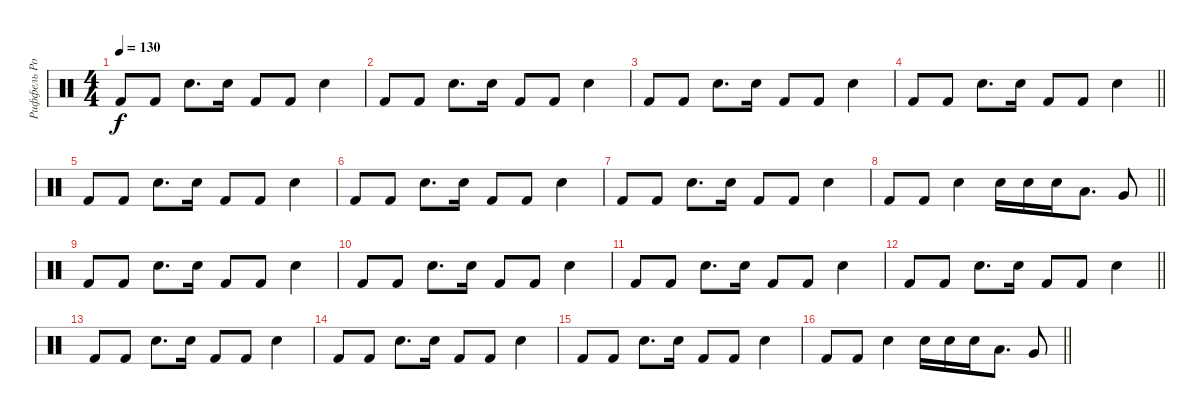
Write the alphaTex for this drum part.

\track ("Риффель Роман(Главные)" "Риффель Ро") {instrument percussion}
\staff {score}
\articulation defaults
\ts (4 4)
\tempo 130
\clef neutral
\ks c "Kick (hit) 2".8{dy f} "Kick (hit) 2".8 "Electric Snare (hit)".8{d} "Electric Snare (hit)".16 "Kick (hit) 2".8 "Kick (hit) 2".8 "Electric Snare (hit)".4
|
"Kick (hit) 2".8 "Kick (hit) 2".8 "Electric Snare (hit)".8{d} "Electric Snare (hit)".16 "Kick (hit) 2".8 "Kick (hit) 2".8 "Electric Snare (hit)".4 |
"Kick (hit) 2".8 "Kick (hit) 2".8 "Electric Snare (hit)".8{d} "Electric Snare (hit)".16 "Kick (hit) 2".8 "Kick (hit) 2".8 "Electric Snare (hit)".4 |
\barLineRight lightlight "Kick (hit) 2".8 "Kick (hit) 2".8 "Electric Snare (hit)".8{d} "Electric Snare (hit)".16 "Kick (hit) 2".8 "Kick (hit) 2".8 "Electric Snare (hit)".4
|
"Kick (hit) 2".8 "Kick (hit) 2".8 "Electric Snare (hit)".8{d} "Electric Snare (hit)".16 "Kick (hit) 2".8 "Kick (hit) 2".8 "Electric Snare (hit)".4 |
"Kick (hit) 2".8 "Kick (hit) 2".8 "Electric Snare (hit)".8{d} "Electric Snare (hit)".16 "Kick (hit) 2".8 "Kick (hit) 2".8 "Electric Snare (hit)".4 |
"Kick (hit) 2".8 "Kick (hit) 2".8 "Electric Snare (hit)".8{d} "Electric Snare (hit)".16 "Kick (hit) 2".8 "Kick (hit) 2".8 "Electric Snare (hit)".4 |
\barLineRight lightlight "Kick (hit) 2".8 "Kick (hit) 2".8 "Electric Snare (hit)".4 "Electric Snare (hit)".16 "Electric Snare (hit)".16 "Electric Snare (hit)".16 "Low Tom (hit)".8{d} "Very Low Tom (hit)".8
|
"Kick (hit) 2".8 "Kick (hit) 2".8 "Electric Snare (hit)".8{d} "Electric Snare (hit)".16 "Kick (hit) 2".8 "Kick (hit) 2".8 "Electric Snare (hit)".4 |
"Kick (hit) 2".8 "Kick (hit) 2".8 "Electric Snare (hit)".8{d} "Electric Snare (hit)".16 "Kick (hit) 2".8 "Kick (hit) 2".8 "Electric Snare (hit)".4 |
"Kick (hit) 2".8 "Kick (hit) 2".8 "Electric Snare (hit)".8{d} "Electric Snare (hit)".16 "Kick (hit) 2".8 "Kick (hit) 2".8 "Electric Snare (hit)".4 |
\barLineRight lightlight "Kick (hit) 2".8 "Kick (hit) 2".8 "Electric Snare (hit)".8{d} "Electric Snare (hit)".16 "Kick (hit) 2".8 "Kick (hit) 2".8 "Electric Snare (hit)".4
|
"Kick (hit) 2".8 "Kick (hit) 2".8 "Electric Snare (hit)".8{d} "Electric Snare (hit)".16 "Kick (hit) 2".8 "Kick (hit) 2".8 "Electric Snare (hit)".4 |
"Kick (hit) 2".8 "Kick (hit) 2".8 "Electric Snare (hit)".8{d} "Electric Snare (hit)".16 "Kick (hit) 2".8 "Kick (hit) 2".8 "Electric Snare (hit)".4 |
"Kick (hit) 2".8 "Kick (hit) 2".8 "Electric Snare (hit)".8{d} "Electric Snare (hit)".16 "Kick (hit) 2".8 "Kick (hit) 2".8 "Electric Snare (hit)".4 |
\barLineRight lightlight "Kick (hit) 2".8 "Kick (hit) 2".8 "Electric Snare (hit)".4 "Electric Snare (hit)".16 "Electric Snare (hit)".16 "Electric Snare (hit)".16 "Low Tom (hit)".8{d} "Very Low Tom (hit)".8
